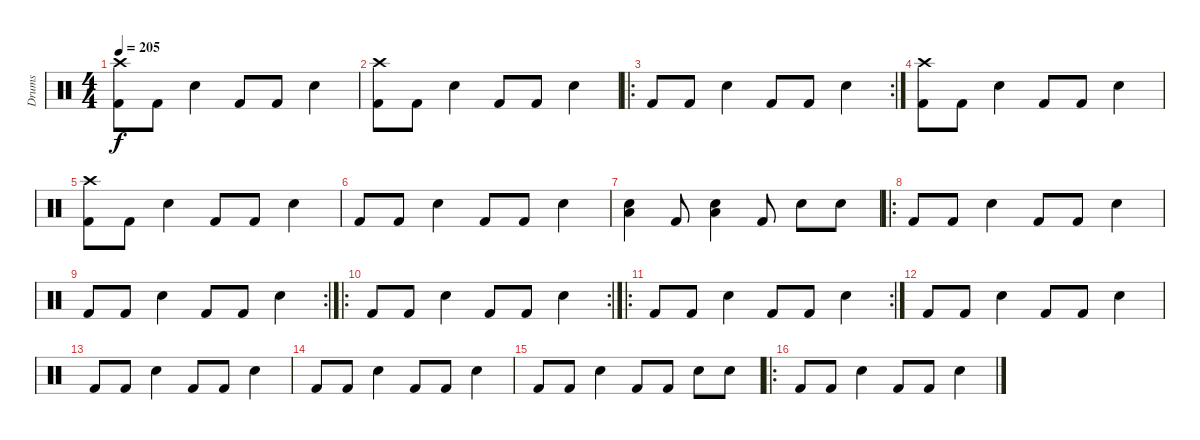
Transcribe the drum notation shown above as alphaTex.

\track ("Drums " "Drums ") {instrument percussion}
\staff {score}
\articulation defaults
\ts (4 4)
\tempo 205
\clef neutral
\ks c
("Crash high (hit)" "Kick (hit) 2").8{dy f} "Kick (hit) 2".8 "Electric Snare (hit)".4 "Kick (hit) 2".8 "Kick (hit) 2".8 "Electric Snare (hit)".4 |
("Crash high (hit)" "Kick (hit) 2").8 "Kick (hit) 2".8 "Electric Snare (hit)".4 "Kick (hit) 2".8 "Kick (hit) 2".8 "Electric Snare (hit)".4 |
\ro
\rc 2 "Kick (hit) 2".8 "Kick (hit) 2".8 "Electric Snare (hit)".4 "Kick (hit) 2".8 "Kick (hit) 2".8 "Electric Snare (hit)".4
|
("Crash high (hit)" "Kick (hit) 2").8 "Kick (hit) 2".8 "Electric Snare (hit)".4 "Kick (hit) 2".8 "Kick (hit) 2".8 "Electric Snare (hit)".4 |
("Crash high (hit)" "Kick (hit) 2").8 "Kick (hit) 2".8 "Electric Snare (hit)".4 "Kick (hit) 2".8 "Kick (hit) 2".8 "Electric Snare (hit)".4 |
"Kick (hit) 2".8 "Kick (hit) 2".8 "Electric Snare (hit)".4 "Kick (hit) 2".8 "Kick (hit) 2".8 "Electric Snare (hit)".4 |
("Low Floor Tom (hit)" "Electric Snare (hit)").4 "Kick (hit) 2".8 ("Low Floor Tom (hit)" "Electric Snare (hit)").4 "Kick (hit) 2".8 "Electric Snare (hit)".8 "Electric Snare (hit)".8 |
\ro "Kick (hit) 2".8 "Kick (hit) 2".8 "Electric Snare (hit)".4 "Kick (hit) 2".8 "Kick (hit) 2".8 "Electric Snare (hit)".4
|
\rc 2 "Kick (hit) 2".8 "Kick (hit) 2".8 "Electric Snare (hit)".4 "Kick (hit) 2".8 "Kick (hit) 2".8 "Electric Snare (hit)".4
|
\ro
\rc 2 "Kick (hit) 2".8 "Kick (hit) 2".8 "Electric Snare (hit)".4 "Kick (hit) 2".8 "Kick (hit) 2".8 "Electric Snare (hit)".4
|
\ro
\rc 2 "Kick (hit) 2".8 "Kick (hit) 2".8 "Electric Snare (hit)".4 "Kick (hit) 2".8 "Kick (hit) 2".8 "Electric Snare (hit)".4
|
"Kick (hit) 2".8 "Kick (hit) 2".8 "Electric Snare (hit)".4 "Kick (hit) 2".8 "Kick (hit) 2".8 "Electric Snare (hit)".4 |
"Kick (hit) 2".8 "Kick (hit) 2".8 "Electric Snare (hit)".4 "Kick (hit) 2".8 "Kick (hit) 2".8 "Electric Snare (hit)".4 |
"Kick (hit) 2".8 "Kick (hit) 2".8 "Electric Snare (hit)".4 "Kick (hit) 2".8 "Kick (hit) 2".8 "Electric Snare (hit)".4 |
"Kick (hit) 2".8 "Kick (hit) 2".8 "Electric Snare (hit)".4 "Kick (hit) 2".8 "Kick (hit) 2".8 "Electric Snare (hit)".8 "Electric Snare (hit)".8 |
\ro "Kick (hit) 2".8 "Kick (hit) 2".8 "Electric Snare (hit)".4 "Kick (hit) 2".8 "Kick (hit) 2".8 "Electric Snare (hit)".4
